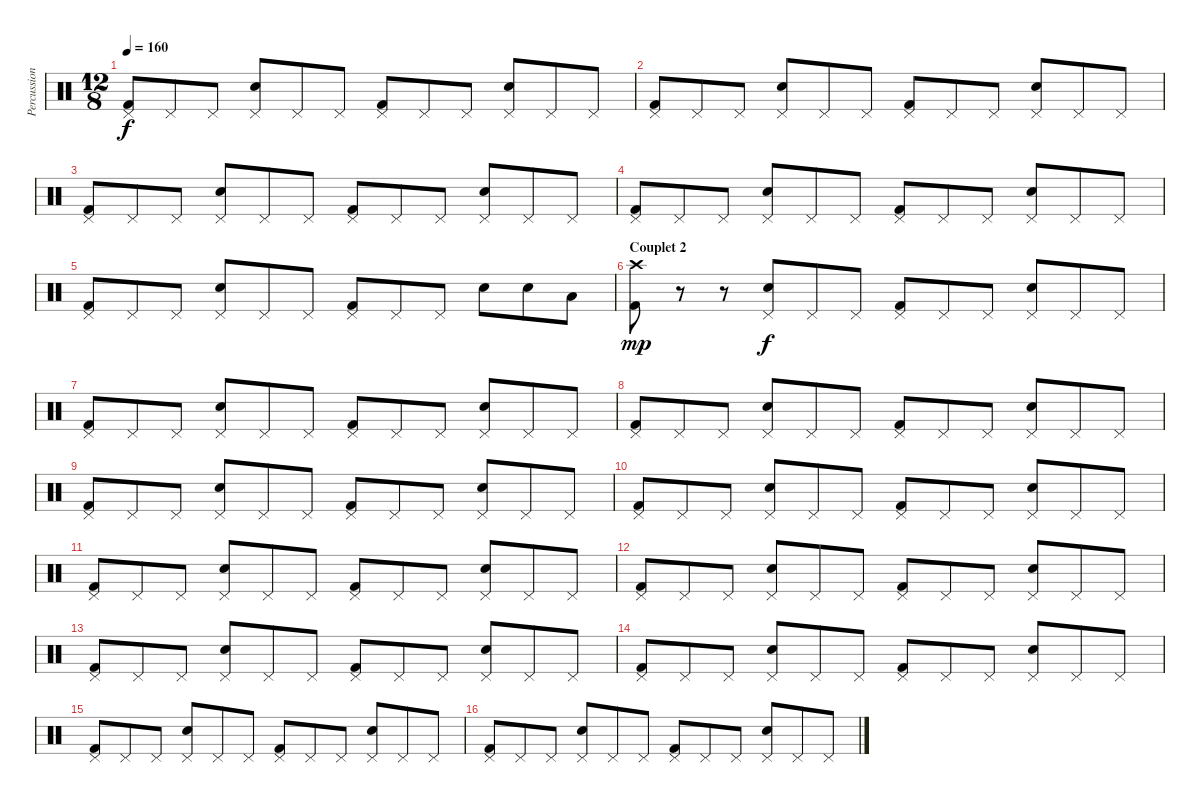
\track ("Percussions" "Percussion") {instrument percussion}
\staff {score}
\articulation defaults
\ts (12 8)
\tempo 160
\clef neutral
\ks c
("Pedal Hi-Hat (hit)" "Kick (hit) 2").8{dy f} "Pedal Hi-Hat (hit)".8 "Pedal Hi-Hat (hit)".8 ("Pedal Hi-Hat (hit)" "Electric Snare (hit)").8 "Pedal Hi-Hat (hit)".8 "Pedal Hi-Hat (hit)".8 ("Pedal Hi-Hat (hit)" "Kick (hit) 2").8 "Pedal Hi-Hat (hit)".8 "Pedal Hi-Hat (hit)".8 ("Pedal Hi-Hat (hit)" "Electric Snare (hit)").8 "Pedal Hi-Hat (hit)".8 "Pedal Hi-Hat (hit)".8 |
("Pedal Hi-Hat (hit)" "Kick (hit) 2").8 "Pedal Hi-Hat (hit)".8 "Pedal Hi-Hat (hit)".8 ("Pedal Hi-Hat (hit)" "Electric Snare (hit)").8 "Pedal Hi-Hat (hit)".8 "Pedal Hi-Hat (hit)".8 ("Pedal Hi-Hat (hit)" "Kick (hit) 2").8 "Pedal Hi-Hat (hit)".8 "Pedal Hi-Hat (hit)".8 ("Pedal Hi-Hat (hit)" "Electric Snare (hit)").8 "Pedal Hi-Hat (hit)".8 "Pedal Hi-Hat (hit)".8 |
("Pedal Hi-Hat (hit)" "Kick (hit) 2").8 "Pedal Hi-Hat (hit)".8 "Pedal Hi-Hat (hit)".8 ("Pedal Hi-Hat (hit)" "Electric Snare (hit)").8 "Pedal Hi-Hat (hit)".8 "Pedal Hi-Hat (hit)".8 ("Pedal Hi-Hat (hit)" "Kick (hit) 2").8 "Pedal Hi-Hat (hit)".8 "Pedal Hi-Hat (hit)".8 ("Pedal Hi-Hat (hit)" "Electric Snare (hit)").8 "Pedal Hi-Hat (hit)".8 "Pedal Hi-Hat (hit)".8 |
("Pedal Hi-Hat (hit)" "Kick (hit) 2").8 "Pedal Hi-Hat (hit)".8 "Pedal Hi-Hat (hit)".8 ("Pedal Hi-Hat (hit)" "Electric Snare (hit)").8 "Pedal Hi-Hat (hit)".8 "Pedal Hi-Hat (hit)".8 ("Pedal Hi-Hat (hit)" "Kick (hit) 2").8 "Pedal Hi-Hat (hit)".8 "Pedal Hi-Hat (hit)".8 ("Pedal Hi-Hat (hit)" "Electric Snare (hit)").8 "Pedal Hi-Hat (hit)".8 "Pedal Hi-Hat (hit)".8 |
("Pedal Hi-Hat (hit)" "Kick (hit) 2").8 "Pedal Hi-Hat (hit)".8 "Pedal Hi-Hat (hit)".8 ("Pedal Hi-Hat (hit)" "Electric Snare (hit)").8 "Pedal Hi-Hat (hit)".8 "Pedal Hi-Hat (hit)".8 ("Pedal Hi-Hat (hit)" "Kick (hit) 2").8 "Pedal Hi-Hat (hit)".8 "Pedal Hi-Hat (hit)".8 "Electric Snare (hit)".8 "Electric Snare (hit)".8 "Low Tom (hit)".8 |
\section ("" "Couplet 2")
("Crash high (hit)" "Kick (hit) 2").8{dy mp} r.8 r.8 ("Pedal Hi-Hat (hit)" "Electric Snare (hit)").8{dy f} "Pedal Hi-Hat (hit)".8 "Pedal Hi-Hat (hit)".8 ("Pedal Hi-Hat (hit)" "Kick (hit) 2").8 "Pedal Hi-Hat (hit)".8 "Pedal Hi-Hat (hit)".8 ("Pedal Hi-Hat (hit)" "Electric Snare (hit)").8 "Pedal Hi-Hat (hit)".8 "Pedal Hi-Hat (hit)".8 |
("Pedal Hi-Hat (hit)" "Kick (hit) 2").8 "Pedal Hi-Hat (hit)".8 "Pedal Hi-Hat (hit)".8 ("Pedal Hi-Hat (hit)" "Electric Snare (hit)").8 "Pedal Hi-Hat (hit)".8 "Pedal Hi-Hat (hit)".8 ("Pedal Hi-Hat (hit)" "Kick (hit) 2").8 "Pedal Hi-Hat (hit)".8 "Pedal Hi-Hat (hit)".8 ("Pedal Hi-Hat (hit)" "Electric Snare (hit)").8 "Pedal Hi-Hat (hit)".8 "Pedal Hi-Hat (hit)".8 |
("Pedal Hi-Hat (hit)" "Kick (hit) 2").8 "Pedal Hi-Hat (hit)".8 "Pedal Hi-Hat (hit)".8 ("Pedal Hi-Hat (hit)" "Electric Snare (hit)").8 "Pedal Hi-Hat (hit)".8 "Pedal Hi-Hat (hit)".8 ("Pedal Hi-Hat (hit)" "Kick (hit) 2").8 "Pedal Hi-Hat (hit)".8 "Pedal Hi-Hat (hit)".8 ("Pedal Hi-Hat (hit)" "Electric Snare (hit)").8 "Pedal Hi-Hat (hit)".8 "Pedal Hi-Hat (hit)".8 |
("Pedal Hi-Hat (hit)" "Kick (hit) 2").8 "Pedal Hi-Hat (hit)".8 "Pedal Hi-Hat (hit)".8 ("Pedal Hi-Hat (hit)" "Electric Snare (hit)").8 "Pedal Hi-Hat (hit)".8 "Pedal Hi-Hat (hit)".8 ("Pedal Hi-Hat (hit)" "Kick (hit) 2").8 "Pedal Hi-Hat (hit)".8 "Pedal Hi-Hat (hit)".8 ("Pedal Hi-Hat (hit)" "Electric Snare (hit)").8 "Pedal Hi-Hat (hit)".8 "Pedal Hi-Hat (hit)".8 |
("Pedal Hi-Hat (hit)" "Kick (hit) 2").8 "Pedal Hi-Hat (hit)".8 "Pedal Hi-Hat (hit)".8 ("Pedal Hi-Hat (hit)" "Electric Snare (hit)").8 "Pedal Hi-Hat (hit)".8 "Pedal Hi-Hat (hit)".8 ("Pedal Hi-Hat (hit)" "Kick (hit) 2").8 "Pedal Hi-Hat (hit)".8 "Pedal Hi-Hat (hit)".8 ("Pedal Hi-Hat (hit)" "Electric Snare (hit)").8 "Pedal Hi-Hat (hit)".8 "Pedal Hi-Hat (hit)".8 |
("Pedal Hi-Hat (hit)" "Kick (hit) 2").8 "Pedal Hi-Hat (hit)".8 "Pedal Hi-Hat (hit)".8 ("Pedal Hi-Hat (hit)" "Electric Snare (hit)").8 "Pedal Hi-Hat (hit)".8 "Pedal Hi-Hat (hit)".8 ("Pedal Hi-Hat (hit)" "Kick (hit) 2").8 "Pedal Hi-Hat (hit)".8 "Pedal Hi-Hat (hit)".8 ("Pedal Hi-Hat (hit)" "Electric Snare (hit)").8 "Pedal Hi-Hat (hit)".8 "Pedal Hi-Hat (hit)".8 |
("Pedal Hi-Hat (hit)" "Kick (hit) 2").8 "Pedal Hi-Hat (hit)".8 "Pedal Hi-Hat (hit)".8 ("Pedal Hi-Hat (hit)" "Electric Snare (hit)").8 "Pedal Hi-Hat (hit)".8 "Pedal Hi-Hat (hit)".8 ("Pedal Hi-Hat (hit)" "Kick (hit) 2").8 "Pedal Hi-Hat (hit)".8 "Pedal Hi-Hat (hit)".8 ("Pedal Hi-Hat (hit)" "Electric Snare (hit)").8 "Pedal Hi-Hat (hit)".8 "Pedal Hi-Hat (hit)".8 |
("Pedal Hi-Hat (hit)" "Kick (hit) 2").8 "Pedal Hi-Hat (hit)".8 "Pedal Hi-Hat (hit)".8 ("Pedal Hi-Hat (hit)" "Electric Snare (hit)").8 "Pedal Hi-Hat (hit)".8 "Pedal Hi-Hat (hit)".8 ("Pedal Hi-Hat (hit)" "Kick (hit) 2").8 "Pedal Hi-Hat (hit)".8 "Pedal Hi-Hat (hit)".8 ("Pedal Hi-Hat (hit)" "Electric Snare (hit)").8 "Pedal Hi-Hat (hit)".8 "Pedal Hi-Hat (hit)".8 |
("Pedal Hi-Hat (hit)" "Kick (hit) 2").8 "Pedal Hi-Hat (hit)".8 "Pedal Hi-Hat (hit)".8 ("Pedal Hi-Hat (hit)" "Electric Snare (hit)").8 "Pedal Hi-Hat (hit)".8 "Pedal Hi-Hat (hit)".8 ("Pedal Hi-Hat (hit)" "Kick (hit) 2").8 "Pedal Hi-Hat (hit)".8 "Pedal Hi-Hat (hit)".8 ("Pedal Hi-Hat (hit)" "Electric Snare (hit)").8 "Pedal Hi-Hat (hit)".8 "Pedal Hi-Hat (hit)".8 |
("Pedal Hi-Hat (hit)" "Kick (hit) 2").8 "Pedal Hi-Hat (hit)".8 "Pedal Hi-Hat (hit)".8 ("Pedal Hi-Hat (hit)" "Electric Snare (hit)").8 "Pedal Hi-Hat (hit)".8 "Pedal Hi-Hat (hit)".8 ("Pedal Hi-Hat (hit)" "Kick (hit) 2").8 "Pedal Hi-Hat (hit)".8 "Pedal Hi-Hat (hit)".8 ("Pedal Hi-Hat (hit)" "Electric Snare (hit)").8 "Pedal Hi-Hat (hit)".8 "Pedal Hi-Hat (hit)".8 |
("Pedal Hi-Hat (hit)" "Kick (hit) 2").8 "Pedal Hi-Hat (hit)".8 "Pedal Hi-Hat (hit)".8 ("Pedal Hi-Hat (hit)" "Electric Snare (hit)").8 "Pedal Hi-Hat (hit)".8 "Pedal Hi-Hat (hit)".8 ("Pedal Hi-Hat (hit)" "Kick (hit) 2").8 "Pedal Hi-Hat (hit)".8 "Pedal Hi-Hat (hit)".8 ("Pedal Hi-Hat (hit)" "Electric Snare (hit)").8 "Pedal Hi-Hat (hit)".8 "Pedal Hi-Hat (hit)".8
